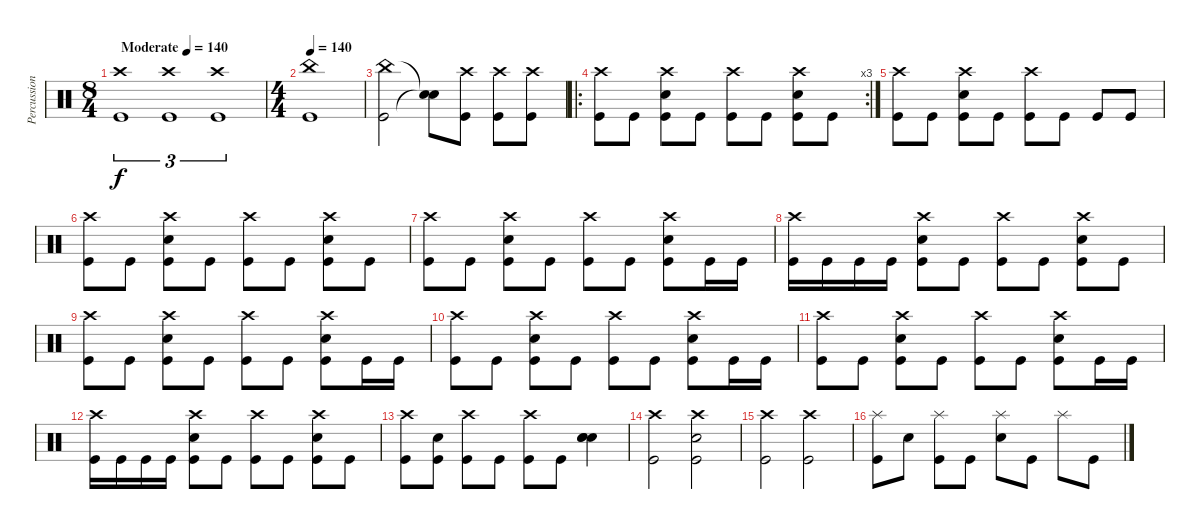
\track ("Percussion" "Percussion") {instrument percussion}
\staff {score}
\articulation defaults
\ts (8 4)
\tempo (140 "Moderate")
\clef neutral
\ks c
("Crash high (hit)" "Kick (hit)").1{tu (3 2) dy f} ("Crash high (hit)" "Kick (hit)").1{tu (3 2)} ("Crash high (hit)" "Kick (hit)").1{tu (3 2)} |
\ts (4 4)
\tempo 140
("China (hit)" "Kick (hit)").1 |
("China (hit)" "Kick (hit)").2 ("Snare (hit)"{t} "Snare (hit)"{t}).8 ("Crash high (hit)" "Kick (hit)").8 ("Crash high (hit)" "Kick (hit)").8 ("Crash high (hit)" "Kick (hit)").8 |
\ro
\rc 3
("Crash high (hit)" "Kick (hit)").8 "Kick (hit)".8 ("Crash high (hit)" "Snare (hit) 2" "Kick (hit)").8 "Kick (hit)".8 ("Crash high (hit)" "Kick (hit)").8 "Kick (hit)".8 ("Crash high (hit)" "Snare (hit) 2" "Kick (hit)").8 "Kick (hit)".8 |
("Crash high (hit)" "Kick (hit)").8 "Kick (hit)".8 ("Crash high (hit)" "Snare (hit) 2" "Kick (hit)").8 "Kick (hit)".8 ("Crash high (hit)" "Kick (hit)").8 "Kick (hit)".8 "Kick (hit)".8 "Kick (hit)".8 |
("Crash high (hit)" "Kick (hit)").8 "Kick (hit)".8 ("Crash high (hit)" "Snare (hit) 2" "Kick (hit)").8 "Kick (hit)".8 ("Crash high (hit)" "Kick (hit)").8 "Kick (hit)".8 ("Crash high (hit)" "Snare (hit) 2" "Kick (hit)").8 "Kick (hit)".8 |
("Crash high (hit)" "Kick (hit)").8 "Kick (hit)".8 ("Crash high (hit)" "Snare (hit) 2" "Kick (hit)").8 "Kick (hit)".8 ("Crash high (hit)" "Kick (hit)").8 "Kick (hit)".8 ("Crash high (hit)" "Snare (hit) 2" "Kick (hit)").8 "Kick (hit)".16 "Kick (hit)".16 |
("Crash high (hit)" "Kick (hit)").16 "Kick (hit)".16 "Kick (hit)".16 "Kick (hit)".16 ("Crash high (hit)" "Snare (hit) 2" "Kick (hit)").8 "Kick (hit)".8 ("Crash high (hit)" "Kick (hit)").8 "Kick (hit)".8 ("Crash high (hit)" "Snare (hit) 2" "Kick (hit)").8 "Kick (hit)".8 |
("Crash high (hit)" "Kick (hit)").8 "Kick (hit)".8 ("Crash high (hit)" "Snare (hit) 2" "Kick (hit)").8 "Kick (hit)".8 ("Crash high (hit)" "Kick (hit)").8 "Kick (hit)".8 ("Crash high (hit)" "Snare (hit) 2" "Kick (hit)").8 "Kick (hit)".16 "Kick (hit)".16 |
("Crash high (hit)" "Kick (hit)").8 "Kick (hit)".8 ("Crash high (hit)" "Snare (hit) 2" "Kick (hit)").8 "Kick (hit)".8 ("Crash high (hit)" "Kick (hit)").8 "Kick (hit)".8 ("Crash high (hit)" "Snare (hit) 2" "Kick (hit)").8 "Kick (hit)".16 "Kick (hit)".16 |
("Crash high (hit)" "Kick (hit)").8 "Kick (hit)".8 ("Crash high (hit)" "Snare (hit) 2" "Kick (hit)").8 "Kick (hit)".8 ("Crash high (hit)" "Kick (hit)").8 "Kick (hit)".8 ("Crash high (hit)" "Snare (hit) 2" "Kick (hit)").8 "Kick (hit)".16 "Kick (hit)".16 |
("Crash high (hit)" "Kick (hit)").16 "Kick (hit)".16 "Kick (hit)".16 "Kick (hit)".16 ("Crash high (hit)" "Snare (hit) 2" "Kick (hit)").8 "Kick (hit)".8 ("Crash high (hit)" "Kick (hit)").8 "Kick (hit)".8 ("Crash high (hit)" "Snare (hit) 2" "Kick (hit)").8 "Kick (hit)".8 |
("Crash high (hit)" "Kick (hit)").8 ("Snare (hit) 2" "Kick (hit)").8 ("Crash high (hit)" "Kick (hit)").8 "Kick (hit)".8 ("Crash high (hit)" "Kick (hit)").8 "Kick (hit)".8 ("Snare (hit) 2" "Electric Snare (hit)" "Hand Clap (hit)").4 |
("Crash high (hit)" "Kick (hit)").2 ("Crash high (hit)" "Snare (hit) 2" "Kick (hit)").2 |
("Crash high (hit)" "Kick (hit)").2 ("Crash high (hit)" "Kick (hit)").2 |
("Splash (hit)" "Kick (hit)").8 "Snare (hit) 2".8 ("Splash (hit)" "Kick (hit)").8 "Kick (hit)".8 ("Splash (hit)" "Snare (hit) 2").8 "Kick (hit)".8 "Splash (hit)".8 "Kick (hit)".8
